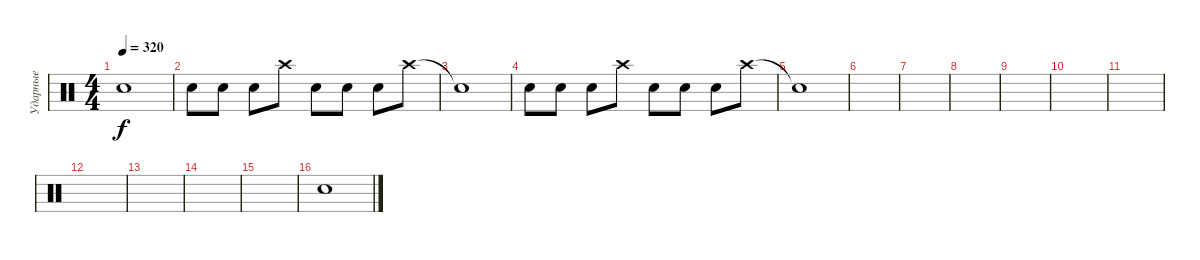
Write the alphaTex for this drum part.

\track ("Ударные" "Ударные") {instrument percussion}
\staff {score}
\articulation defaults
\ts (4 4)
\tempo 320
\clef neutral
\ks c "Snare (hit)"{t}.1{dy f}
|
"Electric Snare (hit)".8 "Electric Snare (hit)".8 "Electric Snare (hit)".8 "Crash high (hit)".8 "Electric Snare (hit)".8 "Electric Snare (hit)".8 "Electric Snare (hit)".8 "Crash high (hit)".8 |
"Snare (hit)"{t}.1 |
"Electric Snare (hit)".8 "Electric Snare (hit)".8 "Electric Snare (hit)".8 "Crash high (hit)".8 "Electric Snare (hit)".8 "Electric Snare (hit)".8 "Electric Snare (hit)".8 "Crash high (hit)".8 |
"Snare (hit)"{t}.1 |
|
|
|
|
|
|
|
|
|
|
"Snare (hit)".1
